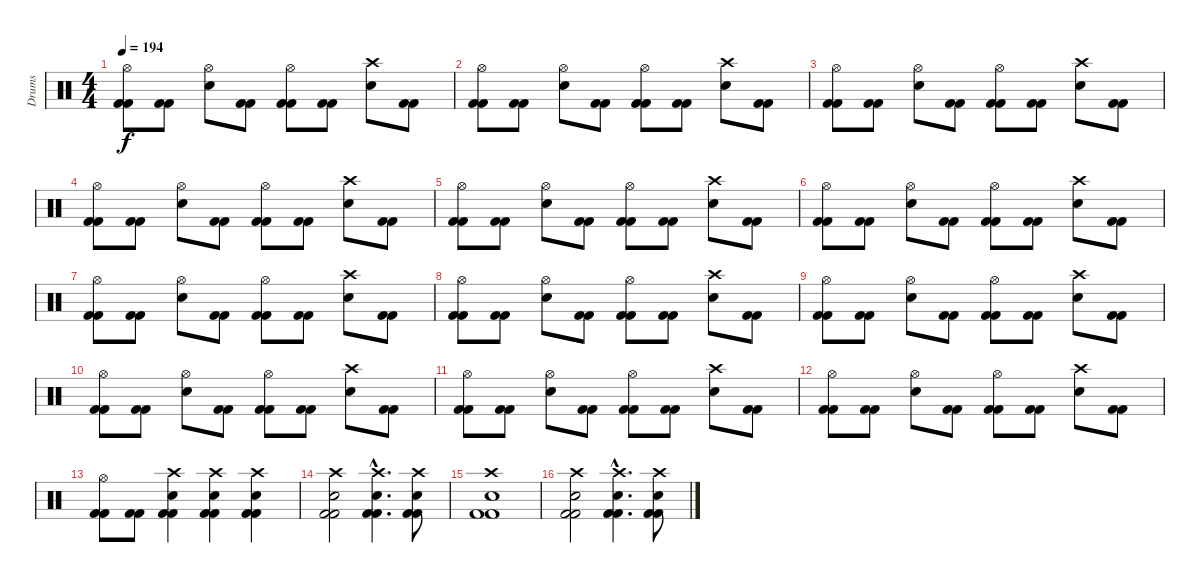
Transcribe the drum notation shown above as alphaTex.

\track ("Drums" "Drums") {instrument percussion}
\staff {score}
\articulation defaults
\ts (4 4)
\tempo 194
\clef neutral
\ks c
("Hi-Hat (open)" "Kick (hit) 2" "Kick (hit) 2").8{dy f} ("Kick (hit) 2" "Kick (hit) 2").8 ("Hi-Hat (open)" "Electric Snare (hit)").8 ("Kick (hit) 2" "Kick (hit) 2").8 ("Hi-Hat (open)" "Kick (hit) 2" "Kick (hit) 2").8 ("Kick (hit) 2" "Kick (hit) 2").8 ("Crash high (hit)" "Electric Snare (hit)").8 ("Kick (hit) 2" "Kick (hit) 2").8 |
("Hi-Hat (open)" "Kick (hit) 2" "Kick (hit) 2").8 ("Kick (hit) 2" "Kick (hit) 2").8 ("Hi-Hat (open)" "Electric Snare (hit)").8 ("Kick (hit) 2" "Kick (hit) 2").8 ("Hi-Hat (open)" "Kick (hit) 2" "Kick (hit) 2").8 ("Kick (hit) 2" "Kick (hit) 2").8 ("Crash high (hit)" "Electric Snare (hit)").8 ("Kick (hit) 2" "Kick (hit) 2").8 |
("Hi-Hat (open)" "Kick (hit) 2" "Kick (hit) 2").8 ("Kick (hit) 2" "Kick (hit) 2").8 ("Hi-Hat (open)" "Electric Snare (hit)").8 ("Kick (hit) 2" "Kick (hit) 2").8 ("Hi-Hat (open)" "Kick (hit) 2" "Kick (hit) 2").8 ("Kick (hit) 2" "Kick (hit) 2").8 ("Crash high (hit)" "Electric Snare (hit)").8 ("Kick (hit) 2" "Kick (hit) 2").8 |
("Hi-Hat (open)" "Kick (hit) 2" "Kick (hit) 2").8 ("Kick (hit) 2" "Kick (hit) 2").8 ("Hi-Hat (open)" "Electric Snare (hit)").8 ("Kick (hit) 2" "Kick (hit) 2").8 ("Hi-Hat (open)" "Kick (hit) 2" "Kick (hit) 2").8 ("Kick (hit) 2" "Kick (hit) 2").8 ("Crash high (hit)" "Electric Snare (hit)").8 ("Kick (hit) 2" "Kick (hit) 2").8 |
("Hi-Hat (open)" "Kick (hit) 2" "Kick (hit) 2").8 ("Kick (hit) 2" "Kick (hit) 2").8 ("Hi-Hat (open)" "Electric Snare (hit)").8 ("Kick (hit) 2" "Kick (hit) 2").8 ("Hi-Hat (open)" "Kick (hit) 2" "Kick (hit) 2").8 ("Kick (hit) 2" "Kick (hit) 2").8 ("Crash high (hit)" "Electric Snare (hit)").8 ("Kick (hit) 2" "Kick (hit) 2").8 |
("Hi-Hat (open)" "Kick (hit) 2" "Kick (hit) 2").8 ("Kick (hit) 2" "Kick (hit) 2").8 ("Hi-Hat (open)" "Electric Snare (hit)").8 ("Kick (hit) 2" "Kick (hit) 2").8 ("Hi-Hat (open)" "Kick (hit) 2" "Kick (hit) 2").8 ("Kick (hit) 2" "Kick (hit) 2").8 ("Crash high (hit)" "Electric Snare (hit)").8 ("Kick (hit) 2" "Kick (hit) 2").8 |
("Hi-Hat (open)" "Kick (hit) 2" "Kick (hit) 2").8 ("Kick (hit) 2" "Kick (hit) 2").8 ("Hi-Hat (open)" "Electric Snare (hit)").8 ("Kick (hit) 2" "Kick (hit) 2").8 ("Hi-Hat (open)" "Kick (hit) 2" "Kick (hit) 2").8 ("Kick (hit) 2" "Kick (hit) 2").8 ("Crash high (hit)" "Electric Snare (hit)").8 ("Kick (hit) 2" "Kick (hit) 2").8 |
("Hi-Hat (open)" "Kick (hit) 2" "Kick (hit) 2").8 ("Kick (hit) 2" "Kick (hit) 2").8 ("Hi-Hat (open)" "Electric Snare (hit)").8 ("Kick (hit) 2" "Kick (hit) 2").8 ("Hi-Hat (open)" "Kick (hit) 2" "Kick (hit) 2").8 ("Kick (hit) 2" "Kick (hit) 2").8 ("Crash high (hit)" "Electric Snare (hit)").8 ("Kick (hit) 2" "Kick (hit) 2").8 |
("Hi-Hat (open)" "Kick (hit) 2" "Kick (hit) 2").8 ("Kick (hit) 2" "Kick (hit) 2").8 ("Hi-Hat (open)" "Electric Snare (hit)").8 ("Kick (hit) 2" "Kick (hit) 2").8 ("Hi-Hat (open)" "Kick (hit) 2" "Kick (hit) 2").8 ("Kick (hit) 2" "Kick (hit) 2").8 ("Crash high (hit)" "Electric Snare (hit)").8 ("Kick (hit) 2" "Kick (hit) 2").8 |
("Hi-Hat (open)" "Kick (hit) 2" "Kick (hit) 2").8 ("Kick (hit) 2" "Kick (hit) 2").8 ("Hi-Hat (open)" "Electric Snare (hit)").8 ("Kick (hit) 2" "Kick (hit) 2").8 ("Hi-Hat (open)" "Kick (hit) 2" "Kick (hit) 2").8 ("Kick (hit) 2" "Kick (hit) 2").8 ("Crash high (hit)" "Electric Snare (hit)").8 ("Kick (hit) 2" "Kick (hit) 2").8 |
("Hi-Hat (open)" "Kick (hit) 2" "Kick (hit) 2").8 ("Kick (hit) 2" "Kick (hit) 2").8 ("Hi-Hat (open)" "Electric Snare (hit)").8 ("Kick (hit) 2" "Kick (hit) 2").8 ("Hi-Hat (open)" "Kick (hit) 2" "Kick (hit) 2").8 ("Kick (hit) 2" "Kick (hit) 2").8 ("Crash high (hit)" "Electric Snare (hit)").8 ("Kick (hit) 2" "Kick (hit) 2").8 |
("Hi-Hat (open)" "Kick (hit) 2" "Kick (hit) 2").8 ("Kick (hit) 2" "Kick (hit) 2").8 ("Hi-Hat (open)" "Electric Snare (hit)").8 ("Kick (hit) 2" "Kick (hit) 2").8 ("Hi-Hat (open)" "Kick (hit) 2" "Kick (hit) 2").8 ("Kick (hit) 2" "Kick (hit) 2").8 ("Crash high (hit)" "Electric Snare (hit)").8 ("Kick (hit) 2" "Kick (hit) 2").8 |
("Hi-Hat (open)" "Kick (hit) 2" "Kick (hit) 2").8 ("Kick (hit) 2" "Kick (hit) 2").8 ("Crash high (hit)" "Electric Snare (hit)" "Kick (hit) 2" "Kick (hit) 2").4 ("Crash high (hit)" "Electric Snare (hit)" "Kick (hit) 2" "Kick (hit) 2").4 ("Crash high (hit)" "Electric Snare (hit)" "Kick (hit) 2" "Kick (hit) 2").4 |
("Crash high (hit)" "Electric Snare (hit)" "Kick (hit) 2" "Kick (hit) 2").2 ("Crash high (hit)"{hac} "Electric Snare (hit)"{hac} "Kick (hit) 2"{hac} "Kick (hit) 2"{hac}).4{d} ("Crash high (hit)" "Electric Snare (hit)" "Kick (hit) 2" "Kick (hit) 2").8 |
("Crash high (hit)" "Electric Snare (hit)" "Kick (hit) 2" "Kick (hit) 2").1 |
("Crash high (hit)" "Electric Snare (hit)" "Kick (hit) 2" "Kick (hit) 2").2 ("Crash high (hit)"{hac} "Electric Snare (hit)"{hac} "Kick (hit) 2"{hac} "Kick (hit) 2"{hac}).4{d} ("Crash high (hit)" "Electric Snare (hit)" "Kick (hit) 2" "Kick (hit) 2").8
